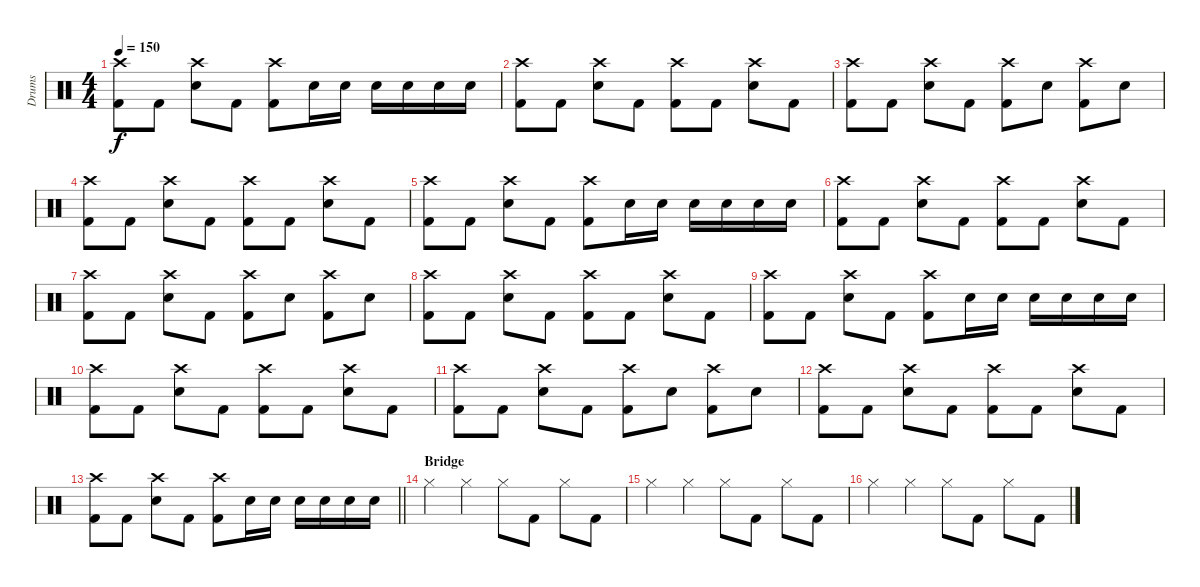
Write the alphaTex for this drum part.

\track ("Drums" "Drums") {instrument percussion}
\staff {score}
\articulation defaults
\ts (4 4)
\tempo 150
\clef neutral
\ks c
("Kick (hit) 2" "Crash high (hit)").8{dy f} "Kick (hit) 2".8 ("Snare (hit) 2" "Crash high (hit)").8 "Kick (hit) 2".8 ("Kick (hit) 2" "Crash high (hit)").8 "Snare (hit) 2".16 "Snare (hit) 2".16 "Snare (hit) 2".16 "Snare (hit) 2".16 "Snare (hit) 2".16 "Snare (hit) 2".16 |
("Kick (hit) 2" "Crash high (hit)").8 "Kick (hit) 2".8 ("Snare (hit) 2" "Crash high (hit)").8 "Kick (hit) 2".8 ("Kick (hit) 2" "Crash high (hit)").8 "Kick (hit) 2".8 ("Snare (hit) 2" "Crash high (hit)").8 "Kick (hit) 2".8 |
("Kick (hit) 2" "Crash high (hit)").8 "Kick (hit) 2".8 ("Snare (hit) 2" "Crash high (hit)").8 "Kick (hit) 2".8 ("Kick (hit) 2" "Crash high (hit)").8 "Snare (hit) 2".8 ("Kick (hit) 2" "Crash high (hit)").8 "Snare (hit) 2".8 |
("Kick (hit) 2" "Crash high (hit)").8 "Kick (hit) 2".8 ("Snare (hit) 2" "Crash high (hit)").8 "Kick (hit) 2".8 ("Kick (hit) 2" "Crash high (hit)").8 "Kick (hit) 2".8 ("Snare (hit) 2" "Crash high (hit)").8 "Kick (hit) 2".8 |
("Kick (hit) 2" "Crash high (hit)").8 "Kick (hit) 2".8 ("Snare (hit) 2" "Crash high (hit)").8 "Kick (hit) 2".8 ("Kick (hit) 2" "Crash high (hit)").8 "Snare (hit) 2".16 "Snare (hit) 2".16 "Snare (hit) 2".16 "Snare (hit) 2".16 "Snare (hit) 2".16 "Snare (hit) 2".16 |
("Kick (hit) 2" "Crash high (hit)").8 "Kick (hit) 2".8 ("Snare (hit) 2" "Crash high (hit)").8 "Kick (hit) 2".8 ("Kick (hit) 2" "Crash high (hit)").8 "Kick (hit) 2".8 ("Snare (hit) 2" "Crash high (hit)").8 "Kick (hit) 2".8 |
("Kick (hit) 2" "Crash high (hit)").8 "Kick (hit) 2".8 ("Snare (hit) 2" "Crash high (hit)").8 "Kick (hit) 2".8 ("Kick (hit) 2" "Crash high (hit)").8 "Snare (hit) 2".8 ("Kick (hit) 2" "Crash high (hit)").8 "Snare (hit) 2".8 |
("Kick (hit) 2" "Crash high (hit)").8 "Kick (hit) 2".8 ("Snare (hit) 2" "Crash high (hit)").8 "Kick (hit) 2".8 ("Kick (hit) 2" "Crash high (hit)").8 "Kick (hit) 2".8 ("Snare (hit) 2" "Crash high (hit)").8 "Kick (hit) 2".8 |
("Kick (hit) 2" "Crash high (hit)").8 "Kick (hit) 2".8 ("Snare (hit) 2" "Crash high (hit)").8 "Kick (hit) 2".8 ("Kick (hit) 2" "Crash high (hit)").8 "Snare (hit) 2".16 "Snare (hit) 2".16 "Snare (hit) 2".16 "Snare (hit) 2".16 "Snare (hit) 2".16 "Snare (hit) 2".16 |
("Kick (hit) 2" "Crash high (hit)").8 "Kick (hit) 2".8 ("Snare (hit) 2" "Crash high (hit)").8 "Kick (hit) 2".8 ("Kick (hit) 2" "Crash high (hit)").8 "Kick (hit) 2".8 ("Snare (hit) 2" "Crash high (hit)").8 "Kick (hit) 2".8 |
("Kick (hit) 2" "Crash high (hit)").8 "Kick (hit) 2".8 ("Snare (hit) 2" "Crash high (hit)").8 "Kick (hit) 2".8 ("Kick (hit) 2" "Crash high (hit)").8 "Snare (hit) 2".8 ("Kick (hit) 2" "Crash high (hit)").8 "Snare (hit) 2".8 |
("Kick (hit) 2" "Crash high (hit)").8 "Kick (hit) 2".8 ("Snare (hit) 2" "Crash high (hit)").8 "Kick (hit) 2".8 ("Kick (hit) 2" "Crash high (hit)").8 "Kick (hit) 2".8 ("Snare (hit) 2" "Crash high (hit)").8 "Kick (hit) 2".8 |
\barLineRight lightlight
("Kick (hit) 2" "Crash high (hit)").8 "Kick (hit) 2".8 ("Snare (hit) 2" "Crash high (hit)").8 "Kick (hit) 2".8 ("Kick (hit) 2" "Crash high (hit)").8 "Snare (hit) 2".16 "Snare (hit) 2".16 "Snare (hit) 2".16 "Snare (hit) 2".16 "Snare (hit) 2".16 "Snare (hit) 2".16 |
\section ("" "Bridge")
"Hi-Hat (closed)".4 "Hi-Hat (closed)".4 "Hi-Hat (closed)".8 "Kick (hit) 2".8 "Hi-Hat (closed)".8 "Kick (hit) 2".8 |
"Hi-Hat (closed)".4 "Hi-Hat (closed)".4 "Hi-Hat (closed)".8 "Kick (hit) 2".8 "Hi-Hat (closed)".8 "Kick (hit) 2".8 |
"Hi-Hat (closed)".4 "Hi-Hat (closed)".4 "Hi-Hat (closed)".8 "Kick (hit) 2".8 "Hi-Hat (closed)".8 "Kick (hit) 2".8
